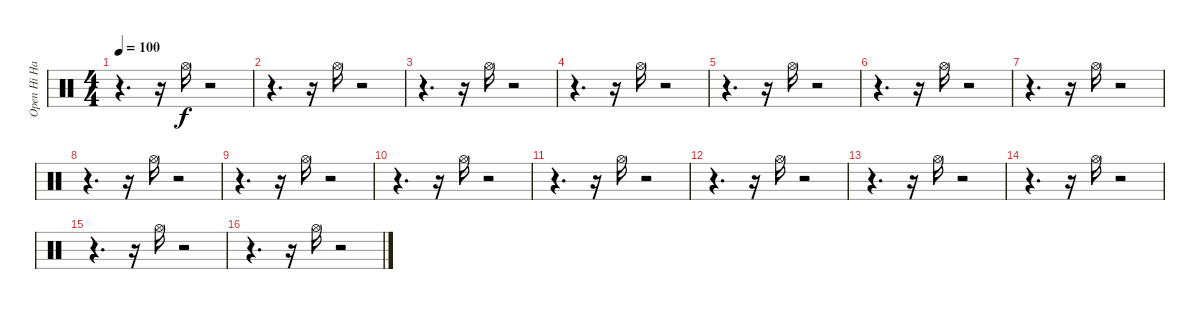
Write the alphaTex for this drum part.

\track ("Open Hi Hat" "Open Hi Ha") {instrument percussion}
\staff {score}
\articulation defaults
\ts (4 4)
\tempo 100
\clef neutral
\ks c
r.4{d dy f} r.16 "Hi-Hat (open)".16 r.2 |
r.4{d} r.16 "Hi-Hat (open)".16 r.2 |
r.4{d} r.16 "Hi-Hat (open)".16 r.2 |
r.4{d} r.16 "Hi-Hat (open)".16 r.2 |
r.4{d} r.16 "Hi-Hat (open)".16 r.2 |
r.4{d} r.16 "Hi-Hat (open)".16 r.2 |
r.4{d} r.16 "Hi-Hat (open)".16 r.2 |
r.4{d} r.16 "Hi-Hat (open)".16 r.2 |
r.4{d} r.16 "Hi-Hat (open)".16 r.2 |
r.4{d} r.16 "Hi-Hat (open)".16 r.2 |
r.4{d} r.16 "Hi-Hat (open)".16 r.2 |
r.4{d} r.16 "Hi-Hat (open)".16 r.2 |
r.4{d} r.16 "Hi-Hat (open)".16 r.2 |
r.4{d} r.16 "Hi-Hat (open)".16 r.2 |
r.4{d} r.16 "Hi-Hat (open)".16 r.2 |
r.4{d} r.16 "Hi-Hat (open)".16 r.2
